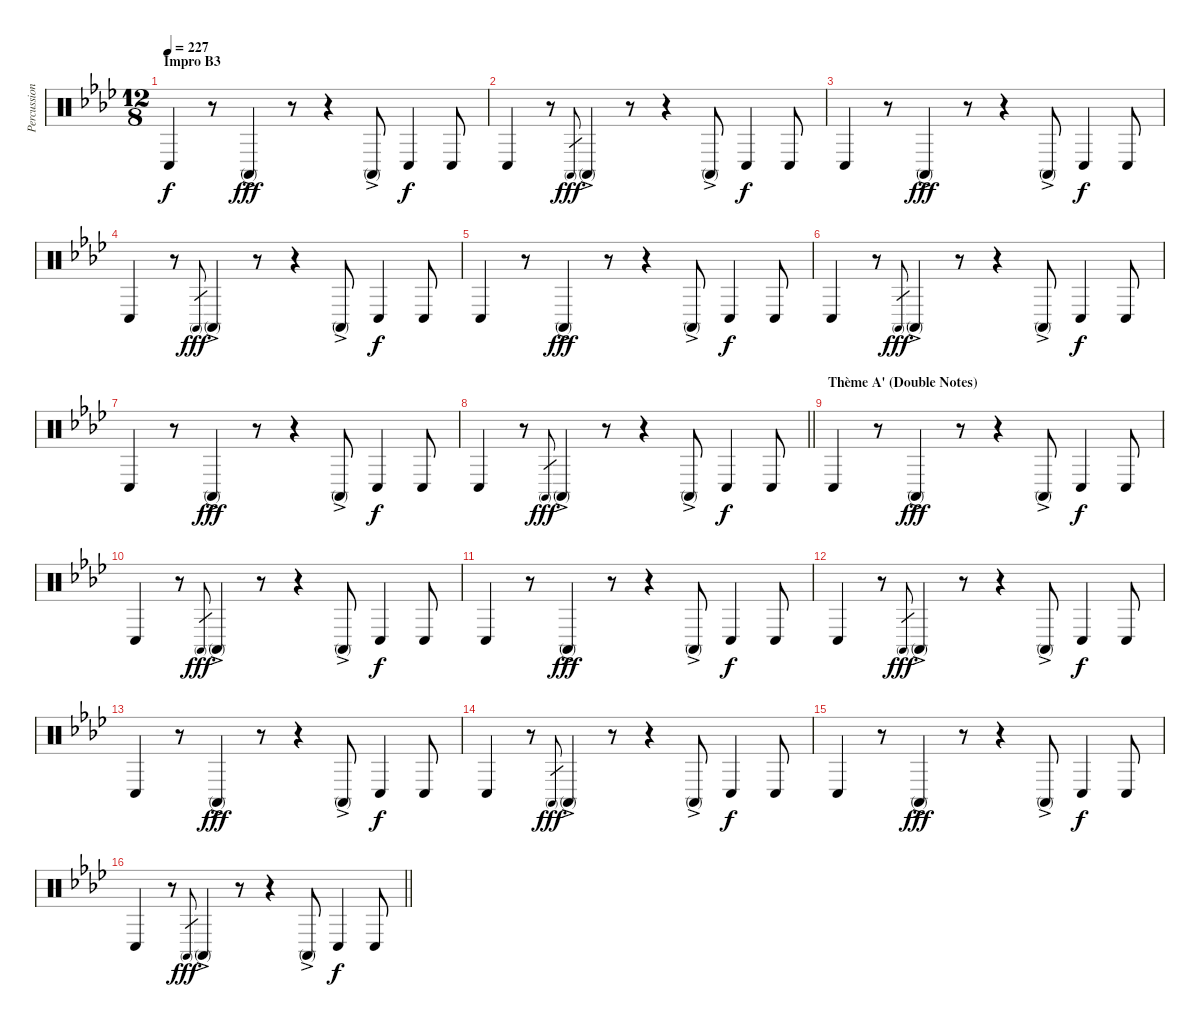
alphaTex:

\track ("Percussions" "Percussion") {instrument percussion}
\staff {score}
\articulation defaults
\ts (12 8)
\section ("" "Impro B3")
\tempo 227
\clef neutral
\ks fminor "Conga low (hit)".4{dy f volume 11 balance 8}
r.8 "Conga high (mute)"{ac}.4{dy fff} r.8 r.4 "Conga high (mute)"{ac}.8 "Conga low (hit)".4{dy f} "Conga low (hit)".8 |
"Conga low (hit)".4 r.8 "Conga high (mute)".8{gr dy fff} "Conga high (mute)"{ac}.4 r.8 r.4 "Conga high (mute)"{ac}.8 "Conga low (hit)".4{dy f} "Conga low (hit)".8 |
"Conga low (hit)".4 r.8 "Conga high (mute)"{ac}.4{dy fff} r.8 r.4 "Conga high (mute)"{ac}.8 "Conga low (hit)".4{dy f} "Conga low (hit)".8 |
"Conga low (hit)".4 r.8 "Conga high (mute)".8{gr dy fff} "Conga high (mute)"{ac}.4 r.8 r.4 "Conga high (mute)"{ac}.8 "Conga low (hit)".4{dy f} "Conga low (hit)".8 |
"Conga low (hit)".4 r.8 "Conga high (mute)"{ac}.4{dy fff} r.8 r.4 "Conga high (mute)"{ac}.8 "Conga low (hit)".4{dy f} "Conga low (hit)".8 |
"Conga low (hit)".4 r.8 "Conga high (mute)".8{gr dy fff} "Conga high (mute)"{ac}.4 r.8 r.4 "Conga high (mute)"{ac}.8 "Conga low (hit)".4{dy f} "Conga low (hit)".8 |
"Conga low (hit)".4 r.8 "Conga high (mute)"{ac}.4{dy fff} r.8 r.4 "Conga high (mute)"{ac}.8 "Conga low (hit)".4{dy f} "Conga low (hit)".8 |
\barLineRight lightlight "Conga low (hit)".4
r.8 "Conga high (mute)".8{gr dy fff} "Conga high (mute)"{ac}.4 r.8 r.4 "Conga high (mute)"{ac}.8 "Conga low (hit)".4{dy f} "Conga low (hit)".8 |
\section ("" "Thème A' (Double Notes)")
"Conga low (hit)".4{volume 12 balance 8} r.8 "Conga high (mute)"{ac}.4{dy fff} r.8 r.4 "Conga high (mute)"{ac}.8 "Conga low (hit)".4{dy f} "Conga low (hit)".8 |
"Conga low (hit)".4 r.8 "Conga high (mute)".8{gr dy fff} "Conga high (mute)"{ac}.4 r.8 r.4 "Conga high (mute)"{ac}.8 "Conga low (hit)".4{dy f} "Conga low (hit)".8 |
"Conga low (hit)".4 r.8 "Conga high (mute)"{ac}.4{dy fff} r.8 r.4 "Conga high (mute)"{ac}.8 "Conga low (hit)".4{dy f} "Conga low (hit)".8 |
"Conga low (hit)".4 r.8 "Conga high (mute)".8{gr dy fff} "Conga high (mute)"{ac}.4 r.8 r.4 "Conga high (mute)"{ac}.8 "Conga low (hit)".4{dy f} "Conga low (hit)".8 |
"Conga low (hit)".4 r.8 "Conga high (mute)"{ac}.4{dy fff} r.8 r.4 "Conga high (mute)"{ac}.8 "Conga low (hit)".4{dy f} "Conga low (hit)".8 |
"Conga low (hit)".4 r.8 "Conga high (mute)".8{gr dy fff} "Conga high (mute)"{ac}.4 r.8 r.4 "Conga high (mute)"{ac}.8 "Conga low (hit)".4{dy f} "Conga low (hit)".8 |
"Conga low (hit)".4 r.8 "Conga high (mute)"{ac}.4{dy fff} r.8 r.4 "Conga high (mute)"{ac}.8 "Conga low (hit)".4{dy f} "Conga low (hit)".8 |
\barLineRight lightlight "Conga low (hit)".4
r.8 "Conga high (mute)".8{gr dy fff} "Conga high (mute)"{ac}.4 r.8 r.4 "Conga high (mute)"{ac}.8 "Conga low (hit)".4{dy f} "Conga low (hit)".8
